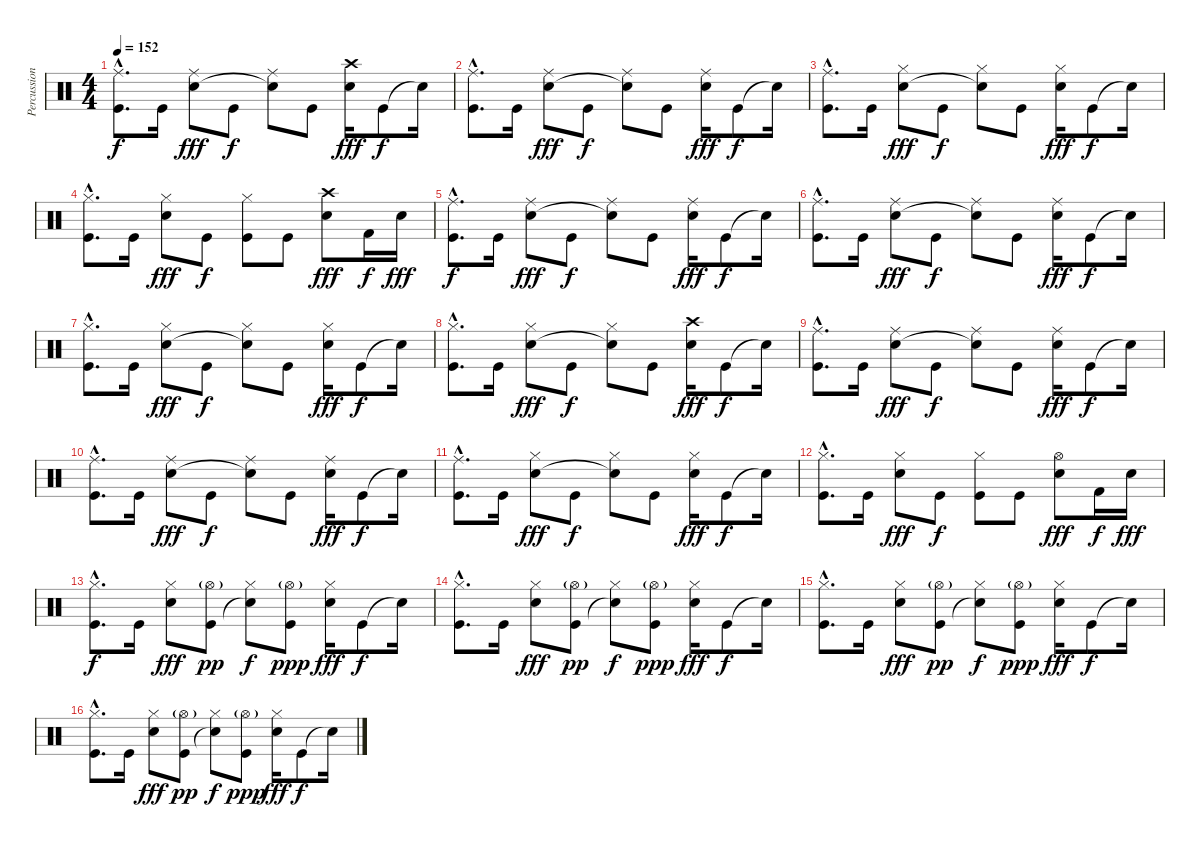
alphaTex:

\track ("Percussions" "Percussion") {instrument percussion}
\staff {score}
\articulation defaults
\ts (4 4)
\tempo 152
\clef neutral
\ks c
("Ride (middle)"{hac} "Kick (hit)"{hac}).8{d dy f} "Kick (hit)".16 ("Ride (middle)" "Snare (hit) 2").8{dy fff} "Kick (hit)".8{dy f} ("Ride (middle)" "Snare (hit)"{t}).8 "Kick (hit)".8 ("Crash high (hit)" "Snare (hit) 2").16{dy fff} "Kick (hit)".8{dy f} "Snare (hit)"{t}.16 |
("Ride (middle)"{hac} "Kick (hit)"{hac}).8{d} "Kick (hit)".16 ("Ride (middle)" "Snare (hit) 2").8{dy fff} "Kick (hit)".8{dy f} ("Ride (middle)" "Snare (hit)"{t}).8 "Kick (hit)".8 ("Ride (middle)" "Snare (hit) 2").16{dy fff} "Kick (hit)".8{dy f} "Snare (hit)"{t}.16 |
("Ride (middle)"{hac} "Kick (hit)"{hac}).8{d} "Kick (hit)".16 ("Hi-Hat (closed)" "Snare (hit) 2").8{dy fff} "Kick (hit)".8{dy f} ("Hi-Hat (closed)" "Snare (hit)"{t}).8 "Kick (hit)".8 ("Hi-Hat (closed)" "Snare (hit) 2").16{dy fff} "Kick (hit)".8{dy f} "Snare (hit)"{t}.16 |
("Hi-Hat (closed)"{hac} "Kick (hit)"{hac}).8{d} "Kick (hit)".16 ("Hi-Hat (closed)" "Snare (hit) 2").8{dy fff} "Kick (hit)".8{dy f} ("Hi-Hat (closed)" "Kick (hit)").8 "Kick (hit)".8 ("Crash high (hit)" "Snare (hit) 2").8{dy fff} "Kick (hit) 2".16{dy f} "Snare (hit) 2".16{dy fff} |
("Ride (middle)"{hac} "Kick (hit)"{hac}).8{d dy f} "Kick (hit)".16 ("Ride (middle)" "Snare (hit) 2").8{dy fff} "Kick (hit)".8{dy f} ("Ride (middle)" "Snare (hit)"{t}).8 "Kick (hit)".8 ("Ride (middle)" "Snare (hit) 2").16{dy fff} "Kick (hit)".8{dy f} "Snare (hit)"{t}.16 |
("Ride (middle)"{hac} "Kick (hit)"{hac}).8{d} "Kick (hit)".16 ("Ride (middle)" "Snare (hit) 2").8{dy fff} "Kick (hit)".8{dy f} ("Ride (middle)" "Snare (hit)"{t}).8 "Kick (hit)".8 ("Ride (middle)" "Snare (hit) 2").16{dy fff} "Kick (hit)".8{dy f} "Snare (hit)"{t}.16 |
("Hi-Hat (closed)"{hac} "Kick (hit)"{hac}).8{d} "Kick (hit)".16 ("Hi-Hat (closed)" "Snare (hit) 2").8{dy fff} "Kick (hit)".8{dy f} ("Hi-Hat (closed)" "Snare (hit)"{t}).8 "Kick (hit)".8 ("Hi-Hat (closed)" "Snare (hit) 2").16{dy fff} "Kick (hit)".8{dy f} "Snare (hit)"{t}.16 |
("Hi-Hat (closed)"{hac} "Kick (hit)"{hac}).8{d} "Kick (hit)".16 ("Hi-Hat (closed)" "Snare (hit) 2").8{dy fff} "Kick (hit)".8{dy f} ("Hi-Hat (closed)" "Snare (hit)"{t}).8 "Kick (hit)".8 ("Crash high (hit)" "Snare (hit) 2").16{dy fff} "Kick (hit)".8{dy f} "Snare (hit)"{t}.16 |
("Ride (middle)"{hac} "Kick (hit)"{hac}).8{d} "Kick (hit)".16 ("Ride (middle)" "Snare (hit) 2").8{dy fff} "Kick (hit)".8{dy f} ("Ride (middle)" "Snare (hit)"{t}).8 "Kick (hit)".8 ("Ride (middle)" "Snare (hit) 2").16{dy fff} "Kick (hit)".8{dy f} "Snare (hit)"{t}.16 |
("Ride (middle)"{hac} "Kick (hit)"{hac}).8{d} "Kick (hit)".16 ("Ride (middle)" "Snare (hit) 2").8{dy fff} "Kick (hit)".8{dy f} ("Ride (middle)" "Snare (hit)"{t}).8 "Kick (hit)".8 ("Ride (middle)" "Snare (hit) 2").16{dy fff} "Kick (hit)".8{dy f} "Snare (hit)"{t}.16 |
("Ride (middle)"{hac} "Kick (hit)"{hac}).8{d} "Kick (hit)".16 ("Hi-Hat (closed)" "Snare (hit) 2").8{dy fff} "Kick (hit)".8{dy f} ("Hi-Hat (closed)" "Snare (hit)"{t}).8 "Kick (hit)".8 ("Hi-Hat (closed)" "Snare (hit) 2").16{dy fff} "Kick (hit)".8{dy f} "Snare (hit)"{t}.16 |
("Hi-Hat (closed)"{hac} "Kick (hit)"{hac}).8{d} "Kick (hit)".16 ("Hi-Hat (closed)" "Snare (hit) 2").8{dy fff} "Kick (hit)".8{dy f} ("Hi-Hat (closed)" "Kick (hit)").8 "Kick (hit)".8 ("Hi-Hat (open)" "Snare (hit) 2").8{dy fff} "Kick (hit) 2".16{dy f} "Snare (hit) 2".16{dy fff} |
("Hi-Hat (closed)"{hac} "Kick (hit)"{hac}).8{d dy f} "Kick (hit)".16 ("Hi-Hat (closed)" "Snare (hit) 2").8{dy fff} ("Hi-Hat (open)"{g} "Kick (hit)").8{dy pp} ("Hi-Hat (closed)" "Snare (hit)"{t}).8{dy f} ("Hi-Hat (open)"{g} "Kick (hit)").8{dy ppp} ("Hi-Hat (closed)" "Snare (hit) 2").16{dy fff} "Kick (hit)".8{dy f} "Snare (hit)"{t}.16 |
("Hi-Hat (closed)"{hac} "Kick (hit)"{hac}).8{d} "Kick (hit)".16 ("Hi-Hat (closed)" "Snare (hit) 2").8{dy fff} ("Hi-Hat (open)"{g} "Kick (hit)").8{dy pp} ("Hi-Hat (closed)" "Snare (hit)"{t}).8{dy f} ("Hi-Hat (open)"{g} "Kick (hit)").8{dy ppp} ("Hi-Hat (closed)" "Snare (hit) 2").16{dy fff} "Kick (hit)".8{dy f} "Snare (hit)"{t}.16 |
("Hi-Hat (closed)"{hac} "Kick (hit)"{hac}).8{d} "Kick (hit)".16 ("Hi-Hat (closed)" "Snare (hit) 2").8{dy fff} ("Hi-Hat (open)"{g} "Kick (hit)").8{dy pp} ("Hi-Hat (closed)" "Snare (hit)"{t}).8{dy f} ("Hi-Hat (open)"{g} "Kick (hit)").8{dy ppp} ("Hi-Hat (closed)" "Snare (hit) 2").16{dy fff} "Kick (hit)".8{dy f} "Snare (hit)"{t}.16 |
("Hi-Hat (closed)"{hac} "Kick (hit)"{hac}).8{d} "Kick (hit)".16 ("Hi-Hat (closed)" "Snare (hit) 2").8{dy fff} ("Hi-Hat (open)"{g} "Kick (hit)").8{dy pp} ("Hi-Hat (closed)" "Snare (hit)"{t}).8{dy f} ("Hi-Hat (open)"{g} "Kick (hit)").8{dy ppp} ("Hi-Hat (closed)" "Snare (hit) 2").16{dy fff} "Kick (hit)".8{dy f} "Snare (hit)"{t}.16
